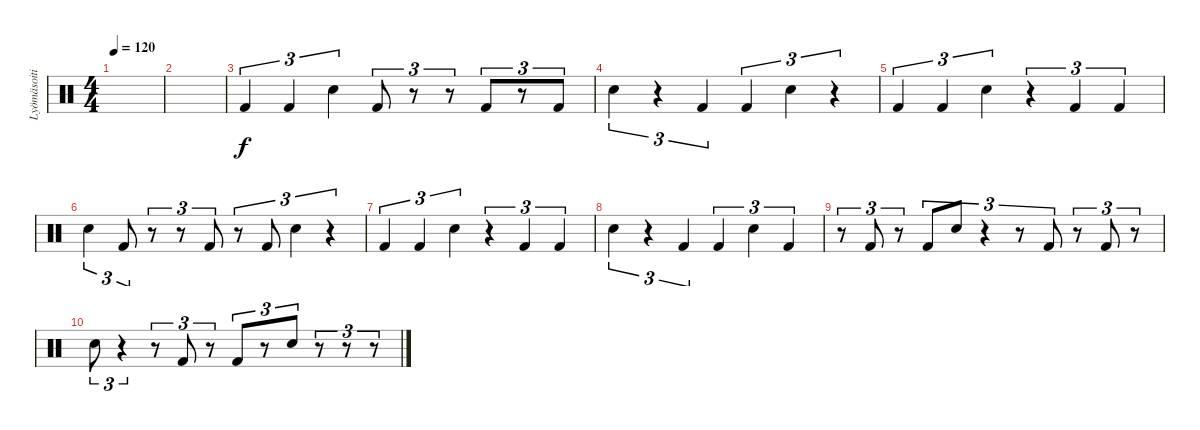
\track ("Lyömäsoitin" "Lyömäsoiti") {instrument percussion}
\staff {score}
\articulation defaults
\ts (4 4)
\tempo 120
\clef neutral
\ks c
|
|
"Kick (hit) 2".4{tu (3 2)} "Kick (hit) 2".4{tu (3 2)} "Snare (hit) 2".4{tu (3 2)} "Kick (hit) 2".8{tu (3 2)} r.8{tu (3 2)} r.8{tu (3 2)} "Kick (hit) 2".8{tu (3 2)} r.8{tu (3 2)} "Kick (hit) 2".8{tu (3 2)} |
"Snare (hit) 2".4{tu (3 2)} r.4{tu (3 2)} "Kick (hit) 2".4{tu (3 2)} "Kick (hit) 2".4{tu (3 2)} "Snare (hit) 2".4{tu (3 2)} r.4{tu (3 2)} |
"Kick (hit) 2".4{tu (3 2)} "Kick (hit) 2".4{tu (3 2)} "Snare (hit) 2".4{tu (3 2)} r.4{tu (3 2)} "Kick (hit) 2".4{tu (3 2)} "Kick (hit) 2".4{tu (3 2)} |
"Snare (hit) 2".4{tu (3 2)} "Kick (hit) 2".8{tu (3 2)} r.8{tu (3 2)} r.8{tu (3 2)} "Kick (hit) 2".8{tu (3 2)} r.8{tu (3 2)} "Kick (hit) 2".8{tu (3 2)} "Snare (hit) 2".4{tu (3 2)} r.4{tu (3 2)} |
"Kick (hit) 2".4{tu (3 2)} "Kick (hit) 2".4{tu (3 2)} "Snare (hit) 2".4{tu (3 2)} r.4{tu (3 2)} "Kick (hit) 2".4{tu (3 2)} "Kick (hit) 2".4{tu (3 2)} |
"Snare (hit) 2".4{tu (3 2)} r.4{tu (3 2)} "Kick (hit) 2".4{tu (3 2)} "Kick (hit) 2".4{tu (3 2)} "Snare (hit) 2".4{tu (3 2)} "Kick (hit) 2".4{tu (3 2)} |
r.8{tu (3 2)} "Kick (hit) 2".8{tu (3 2)} r.8{tu (3 2)} "Kick (hit) 2".8{tu (3 2)} "Snare (hit) 2".8{tu (3 2)} r.4{tu (3 2)} r.8{tu (3 2)} "Kick (hit) 2".8{tu (3 2)} r.8{tu (3 2)} "Kick (hit) 2".8{tu (3 2)} r.8{tu (3 2)} |
"Snare (hit) 2".8{tu (3 2)} r.4{tu (3 2)} r.8{tu (3 2)} "Kick (hit) 2".8{tu (3 2)} r.8{tu (3 2)} "Kick (hit) 2".8{tu (3 2)} r.8{tu (3 2)} "Snare (hit) 2".8{tu (3 2)} r.8{tu (3 2)} r.8{tu (3 2)} r.8{tu (3 2)}
